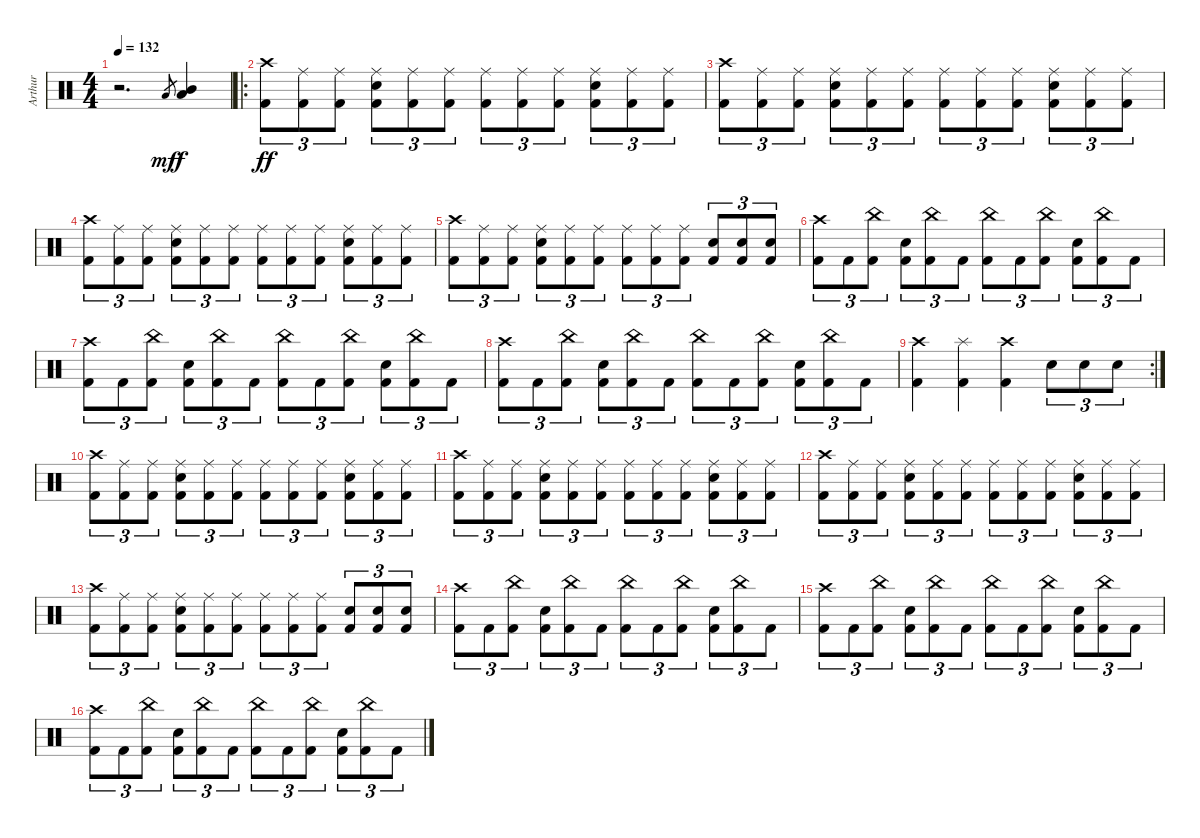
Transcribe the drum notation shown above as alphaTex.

\track ("Arthur" "Arthur") {instrument percussion}
\staff {score}
\articulation defaults
\ts (4 4)
\tempo 132
\clef neutral
\ks c
r.2{d dy mf} "Low Tom (hit)".8{gr} ("Mid Tom (hit)" "Low Tom (hit)").4{dy f} |
\ro
("Crash high (hit)" "Kick (hit) 2").8{tu (3 2) dy ff} ("Ride (middle)" "Kick (hit) 2").8{tu (3 2)} ("Ride (middle)" "Kick (hit) 2").8{tu (3 2)} ("Ride (middle)" "Electric Snare (hit)" "Kick (hit) 2").8{tu (3 2)} ("Ride (middle)" "Kick (hit) 2").8{tu (3 2)} ("Ride (middle)" "Kick (hit) 2").8{tu (3 2)} ("Ride (middle)" "Kick (hit) 2").8{tu (3 2)} ("Ride (middle)" "Kick (hit) 2").8{tu (3 2)} ("Ride (middle)" "Kick (hit) 2").8{tu (3 2)} ("Ride (middle)" "Electric Snare (hit)" "Kick (hit) 2").8{tu (3 2)} ("Ride (middle)" "Kick (hit) 2").8{tu (3 2)} ("Ride (middle)" "Kick (hit) 2").8{tu (3 2)} |
("Crash high (hit)" "Kick (hit) 2").8{tu (3 2)} ("Ride (middle)" "Kick (hit) 2").8{tu (3 2)} ("Ride (middle)" "Kick (hit) 2").8{tu (3 2)} ("Ride (middle)" "Electric Snare (hit)" "Kick (hit) 2").8{tu (3 2)} ("Ride (middle)" "Kick (hit) 2").8{tu (3 2)} ("Ride (middle)" "Kick (hit) 2").8{tu (3 2)} ("Ride (middle)" "Kick (hit) 2").8{tu (3 2)} ("Ride (middle)" "Kick (hit) 2").8{tu (3 2)} ("Ride (middle)" "Kick (hit) 2").8{tu (3 2)} ("Ride (middle)" "Electric Snare (hit)" "Kick (hit) 2").8{tu (3 2)} ("Ride (middle)" "Kick (hit) 2").8{tu (3 2)} ("Ride (middle)" "Kick (hit) 2").8{tu (3 2)} |
("Crash high (hit)" "Kick (hit) 2").8{tu (3 2)} ("Ride (middle)" "Kick (hit) 2").8{tu (3 2)} ("Ride (middle)" "Kick (hit) 2").8{tu (3 2)} ("Ride (middle)" "Electric Snare (hit)" "Kick (hit) 2").8{tu (3 2)} ("Ride (middle)" "Kick (hit) 2").8{tu (3 2)} ("Ride (middle)" "Kick (hit) 2").8{tu (3 2)} ("Ride (middle)" "Kick (hit) 2").8{tu (3 2)} ("Ride (middle)" "Kick (hit) 2").8{tu (3 2)} ("Ride (middle)" "Kick (hit) 2").8{tu (3 2)} ("Ride (middle)" "Electric Snare (hit)" "Kick (hit) 2").8{tu (3 2)} ("Ride (middle)" "Kick (hit) 2").8{tu (3 2)} ("Ride (middle)" "Kick (hit) 2").8{tu (3 2)} |
("Crash high (hit)" "Kick (hit) 2").8{tu (3 2)} ("Ride (middle)" "Kick (hit) 2").8{tu (3 2)} ("Ride (middle)" "Kick (hit) 2").8{tu (3 2)} ("Ride (middle)" "Electric Snare (hit)" "Kick (hit) 2").8{tu (3 2)} ("Ride (middle)" "Kick (hit) 2").8{tu (3 2)} ("Ride (middle)" "Kick (hit) 2").8{tu (3 2)} ("Ride (middle)" "Kick (hit) 2").8{tu (3 2)} ("Ride (middle)" "Kick (hit) 2").8{tu (3 2)} ("Ride (middle)" "Kick (hit) 2").8{tu (3 2)} ("Electric Snare (hit)" "Kick (hit) 2").8{tu (3 2)} ("Electric Snare (hit)" "Kick (hit) 2").8{tu (3 2)} ("Electric Snare (hit)" "Kick (hit) 2").8{tu (3 2)} |
("Crash high (hit)" "Kick (hit) 2").8{tu (3 2)} "Kick (hit) 2".8{tu (3 2)} ("China (hit)" "Kick (hit) 2").8{tu (3 2)} ("Electric Snare (hit)" "Kick (hit) 2").8{tu (3 2)} ("China (hit)" "Kick (hit) 2").8{tu (3 2)} "Kick (hit) 2".8{tu (3 2)} ("China (hit)" "Kick (hit) 2").8{tu (3 2)} "Kick (hit) 2".8{tu (3 2)} ("China (hit)" "Kick (hit) 2").8{tu (3 2)} ("Electric Snare (hit)" "Kick (hit) 2").8{tu (3 2)} ("China (hit)" "Kick (hit) 2").8{tu (3 2)} "Kick (hit) 2".8{tu (3 2)} |
("Crash high (hit)" "Kick (hit) 2").8{tu (3 2)} "Kick (hit) 2".8{tu (3 2)} ("China (hit)" "Kick (hit) 2").8{tu (3 2)} ("Electric Snare (hit)" "Kick (hit) 2").8{tu (3 2)} ("China (hit)" "Kick (hit) 2").8{tu (3 2)} "Kick (hit) 2".8{tu (3 2)} ("China (hit)" "Kick (hit) 2").8{tu (3 2)} "Kick (hit) 2".8{tu (3 2)} ("China (hit)" "Kick (hit) 2").8{tu (3 2)} ("Electric Snare (hit)" "Kick (hit) 2").8{tu (3 2)} ("China (hit)" "Kick (hit) 2").8{tu (3 2)} "Kick (hit) 2".8{tu (3 2)} |
("Crash high (hit)" "Kick (hit) 2").8{tu (3 2)} "Kick (hit) 2".8{tu (3 2)} ("China (hit)" "Kick (hit) 2").8{tu (3 2)} ("Electric Snare (hit)" "Kick (hit) 2").8{tu (3 2)} ("China (hit)" "Kick (hit) 2").8{tu (3 2)} "Kick (hit) 2".8{tu (3 2)} ("China (hit)" "Kick (hit) 2").8{tu (3 2)} "Kick (hit) 2".8{tu (3 2)} ("China (hit)" "Kick (hit) 2").8{tu (3 2)} ("Electric Snare (hit)" "Kick (hit) 2").8{tu (3 2)} ("China (hit)" "Kick (hit) 2").8{tu (3 2)} "Kick (hit) 2".8{tu (3 2)} |
\rc 2
("Crash high (hit)" "Kick (hit) 2").4 ("Splash (hit)" "Kick (hit) 2").4 ("Crash high (hit)" "Kick (hit) 2").4 "Electric Snare (hit)".8{tu (3 2)} "Electric Snare (hit)".8{tu (3 2)} "Electric Snare (hit)".8{tu (3 2)} |
("Crash high (hit)" "Kick (hit) 2").8{tu (3 2)} ("Ride (middle)" "Kick (hit) 2").8{tu (3 2)} ("Ride (middle)" "Kick (hit) 2").8{tu (3 2)} ("Ride (middle)" "Electric Snare (hit)" "Kick (hit) 2").8{tu (3 2)} ("Ride (middle)" "Kick (hit) 2").8{tu (3 2)} ("Ride (middle)" "Kick (hit) 2").8{tu (3 2)} ("Ride (middle)" "Kick (hit) 2").8{tu (3 2)} ("Ride (middle)" "Kick (hit) 2").8{tu (3 2)} ("Ride (middle)" "Kick (hit) 2").8{tu (3 2)} ("Ride (middle)" "Electric Snare (hit)" "Kick (hit) 2").8{tu (3 2)} ("Ride (middle)" "Kick (hit) 2").8{tu (3 2)} ("Ride (middle)" "Kick (hit) 2").8{tu (3 2)} |
("Crash high (hit)" "Kick (hit) 2").8{tu (3 2)} ("Ride (middle)" "Kick (hit) 2").8{tu (3 2)} ("Ride (middle)" "Kick (hit) 2").8{tu (3 2)} ("Ride (middle)" "Electric Snare (hit)" "Kick (hit) 2").8{tu (3 2)} ("Ride (middle)" "Kick (hit) 2").8{tu (3 2)} ("Ride (middle)" "Kick (hit) 2").8{tu (3 2)} ("Ride (middle)" "Kick (hit) 2").8{tu (3 2)} ("Ride (middle)" "Kick (hit) 2").8{tu (3 2)} ("Ride (middle)" "Kick (hit) 2").8{tu (3 2)} ("Ride (middle)" "Electric Snare (hit)" "Kick (hit) 2").8{tu (3 2)} ("Ride (middle)" "Kick (hit) 2").8{tu (3 2)} ("Ride (middle)" "Kick (hit) 2").8{tu (3 2)} |
("Crash high (hit)" "Kick (hit) 2").8{tu (3 2)} ("Ride (middle)" "Kick (hit) 2").8{tu (3 2)} ("Ride (middle)" "Kick (hit) 2").8{tu (3 2)} ("Ride (middle)" "Electric Snare (hit)" "Kick (hit) 2").8{tu (3 2)} ("Ride (middle)" "Kick (hit) 2").8{tu (3 2)} ("Ride (middle)" "Kick (hit) 2").8{tu (3 2)} ("Ride (middle)" "Kick (hit) 2").8{tu (3 2)} ("Ride (middle)" "Kick (hit) 2").8{tu (3 2)} ("Ride (middle)" "Kick (hit) 2").8{tu (3 2)} ("Ride (middle)" "Electric Snare (hit)" "Kick (hit) 2").8{tu (3 2)} ("Ride (middle)" "Kick (hit) 2").8{tu (3 2)} ("Ride (middle)" "Kick (hit) 2").8{tu (3 2)} |
("Crash high (hit)" "Kick (hit) 2").8{tu (3 2)} ("Ride (middle)" "Kick (hit) 2").8{tu (3 2)} ("Ride (middle)" "Kick (hit) 2").8{tu (3 2)} ("Ride (middle)" "Electric Snare (hit)" "Kick (hit) 2").8{tu (3 2)} ("Ride (middle)" "Kick (hit) 2").8{tu (3 2)} ("Ride (middle)" "Kick (hit) 2").8{tu (3 2)} ("Ride (middle)" "Kick (hit) 2").8{tu (3 2)} ("Ride (middle)" "Kick (hit) 2").8{tu (3 2)} ("Ride (middle)" "Kick (hit) 2").8{tu (3 2)} ("Electric Snare (hit)" "Kick (hit) 2").8{tu (3 2)} ("Electric Snare (hit)" "Kick (hit) 2").8{tu (3 2)} ("Electric Snare (hit)" "Kick (hit) 2").8{tu (3 2)} |
("Crash high (hit)" "Kick (hit) 2").8{tu (3 2)} "Kick (hit) 2".8{tu (3 2)} ("China (hit)" "Kick (hit) 2").8{tu (3 2)} ("Electric Snare (hit)" "Kick (hit) 2").8{tu (3 2)} ("China (hit)" "Kick (hit) 2").8{tu (3 2)} "Kick (hit) 2".8{tu (3 2)} ("China (hit)" "Kick (hit) 2").8{tu (3 2)} "Kick (hit) 2".8{tu (3 2)} ("China (hit)" "Kick (hit) 2").8{tu (3 2)} ("Electric Snare (hit)" "Kick (hit) 2").8{tu (3 2)} ("China (hit)" "Kick (hit) 2").8{tu (3 2)} "Kick (hit) 2".8{tu (3 2)} |
("Crash high (hit)" "Kick (hit) 2").8{tu (3 2)} "Kick (hit) 2".8{tu (3 2)} ("China (hit)" "Kick (hit) 2").8{tu (3 2)} ("Electric Snare (hit)" "Kick (hit) 2").8{tu (3 2)} ("China (hit)" "Kick (hit) 2").8{tu (3 2)} "Kick (hit) 2".8{tu (3 2)} ("China (hit)" "Kick (hit) 2").8{tu (3 2)} "Kick (hit) 2".8{tu (3 2)} ("China (hit)" "Kick (hit) 2").8{tu (3 2)} ("Electric Snare (hit)" "Kick (hit) 2").8{tu (3 2)} ("China (hit)" "Kick (hit) 2").8{tu (3 2)} "Kick (hit) 2".8{tu (3 2)} |
("Crash high (hit)" "Kick (hit) 2").8{tu (3 2)} "Kick (hit) 2".8{tu (3 2)} ("China (hit)" "Kick (hit) 2").8{tu (3 2)} ("Electric Snare (hit)" "Kick (hit) 2").8{tu (3 2)} ("China (hit)" "Kick (hit) 2").8{tu (3 2)} "Kick (hit) 2".8{tu (3 2)} ("China (hit)" "Kick (hit) 2").8{tu (3 2)} "Kick (hit) 2".8{tu (3 2)} ("China (hit)" "Kick (hit) 2").8{tu (3 2)} ("Electric Snare (hit)" "Kick (hit) 2").8{tu (3 2)} ("China (hit)" "Kick (hit) 2").8{tu (3 2)} "Kick (hit) 2".8{tu (3 2)}
